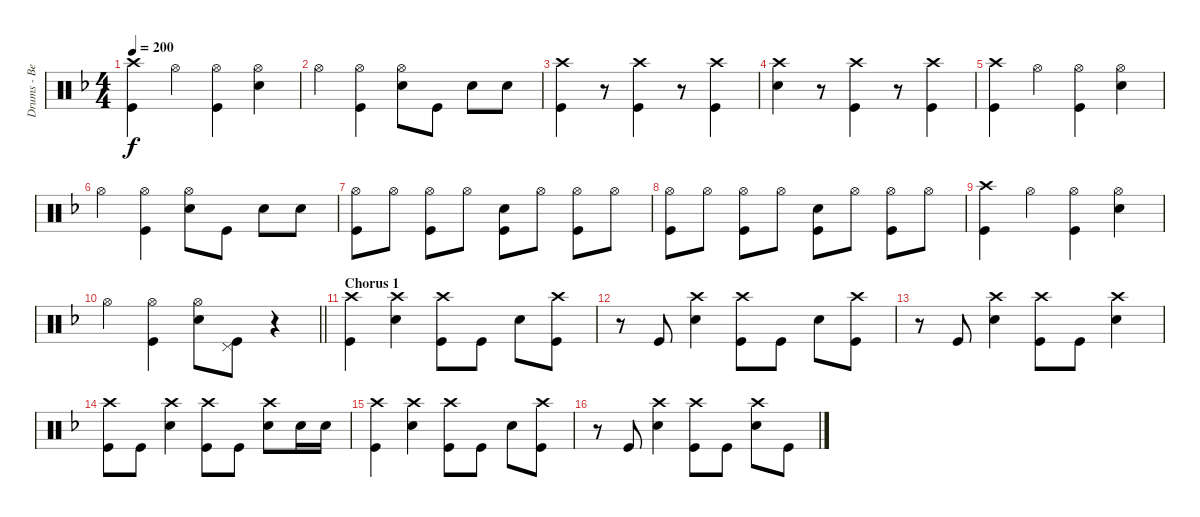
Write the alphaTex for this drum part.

\track ("Drums - Ben Johnston" "Drums - Be") {instrument percussion}
\staff {score}
\articulation defaults
\ts (4 4)
\tempo 200
\clef neutral
\ks f
("Crash high (hit)" "Kick (hit)").4{dy f} "Hi-Hat (open)".4 ("Hi-Hat (open)" "Kick (hit)").4 ("Hi-Hat (open)" "Snare (hit) 2").4 |
"Hi-Hat (open)".4 ("Hi-Hat (open)" "Kick (hit)").4 ("Hi-Hat (open)" "Snare (hit) 2").8 "Kick (hit)".8 "Snare (hit) 2".8 "Snare (hit) 2".8 |
("Crash high (hit)" "Kick (hit)").4 r.8 ("Crash high (hit)" "Kick (hit)").4 r.8 ("Crash high (hit)" "Kick (hit)").4 |
("Crash high (hit)" "Snare (hit) 2").4 r.8 ("Crash high (hit)" "Kick (hit)").4 r.8 ("Crash high (hit)" "Kick (hit)").4 |
("Crash high (hit)" "Kick (hit)").4 "Hi-Hat (open)".4 ("Hi-Hat (open)" "Kick (hit)").4 ("Hi-Hat (open)" "Snare (hit) 2").4 |
"Hi-Hat (open)".4 ("Hi-Hat (open)" "Kick (hit)").4 ("Hi-Hat (open)" "Snare (hit) 2").8 "Kick (hit)".8 "Snare (hit) 2".8 "Snare (hit) 2".8 |
("Hi-Hat (open)" "Kick (hit)").8 "Hi-Hat (open)".8 ("Hi-Hat (open)" "Kick (hit)").8 "Hi-Hat (open)".8 ("Snare (hit) 2" "Kick (hit)").8 "Hi-Hat (open)".8 ("Hi-Hat (open)" "Kick (hit)").8 "Hi-Hat (open)".8 |
("Hi-Hat (open)" "Kick (hit)").8 "Hi-Hat (open)".8 ("Hi-Hat (open)" "Kick (hit)").8 "Hi-Hat (open)".8 ("Snare (hit) 2" "Kick (hit)").8 "Hi-Hat (open)".8 ("Hi-Hat (open)" "Kick (hit)").8 "Hi-Hat (open)".8 |
("Crash high (hit)" "Kick (hit)").4 "Hi-Hat (open)".4 ("Hi-Hat (open)" "Kick (hit)").4 ("Hi-Hat (open)" "Snare (hit) 2").4 |
\barLineRight lightlight "Hi-Hat (open)".4
("Hi-Hat (open)" "Kick (hit)").4 ("Hi-Hat (open)" "Snare (hit) 2").8 ("Pedal Hi-Hat (hit)" "Kick (hit)").8 r.4 |
\section ("" "Chorus 1")
("Crash high (hit)" "Kick (hit)").4 ("Crash high (hit)" "Snare (hit) 2").4 ("Crash high (hit)" "Kick (hit)").8 "Kick (hit)".8 "Snare (hit) 2".8 ("Crash high (hit)" "Kick (hit)").8 |
r.8 "Kick (hit)".8 ("Crash high (hit)" "Snare (hit) 2").4 ("Crash high (hit)" "Kick (hit)").8 "Kick (hit)".8 "Snare (hit) 2".8 ("Crash high (hit)" "Kick (hit)").8 |
r.8 "Kick (hit)".8 ("Crash high (hit)" "Snare (hit) 2").4 ("Crash high (hit)" "Kick (hit)").8 "Kick (hit)".8 ("Crash high (hit)" "Snare (hit) 2").4 |
("Crash high (hit)" "Kick (hit)").8 "Kick (hit)".8 ("Crash high (hit)" "Snare (hit) 2").4 ("Crash high (hit)" "Kick (hit)").8 "Kick (hit)".8 ("Crash high (hit)" "Snare (hit) 2").8 "Snare (hit) 2".16 "Snare (hit) 2".16 |
("Crash high (hit)" "Kick (hit)").4 ("Crash high (hit)" "Snare (hit) 2").4 ("Crash high (hit)" "Kick (hit)").8 "Kick (hit)".8 "Snare (hit) 2".8 ("Crash high (hit)" "Kick (hit)").8 |
r.8 "Kick (hit)".8 ("Crash high (hit)" "Snare (hit) 2").4 ("Crash high (hit)" "Kick (hit)").8 "Kick (hit)".8 ("Crash high (hit)" "Snare (hit) 2").8 "Kick (hit)".8
